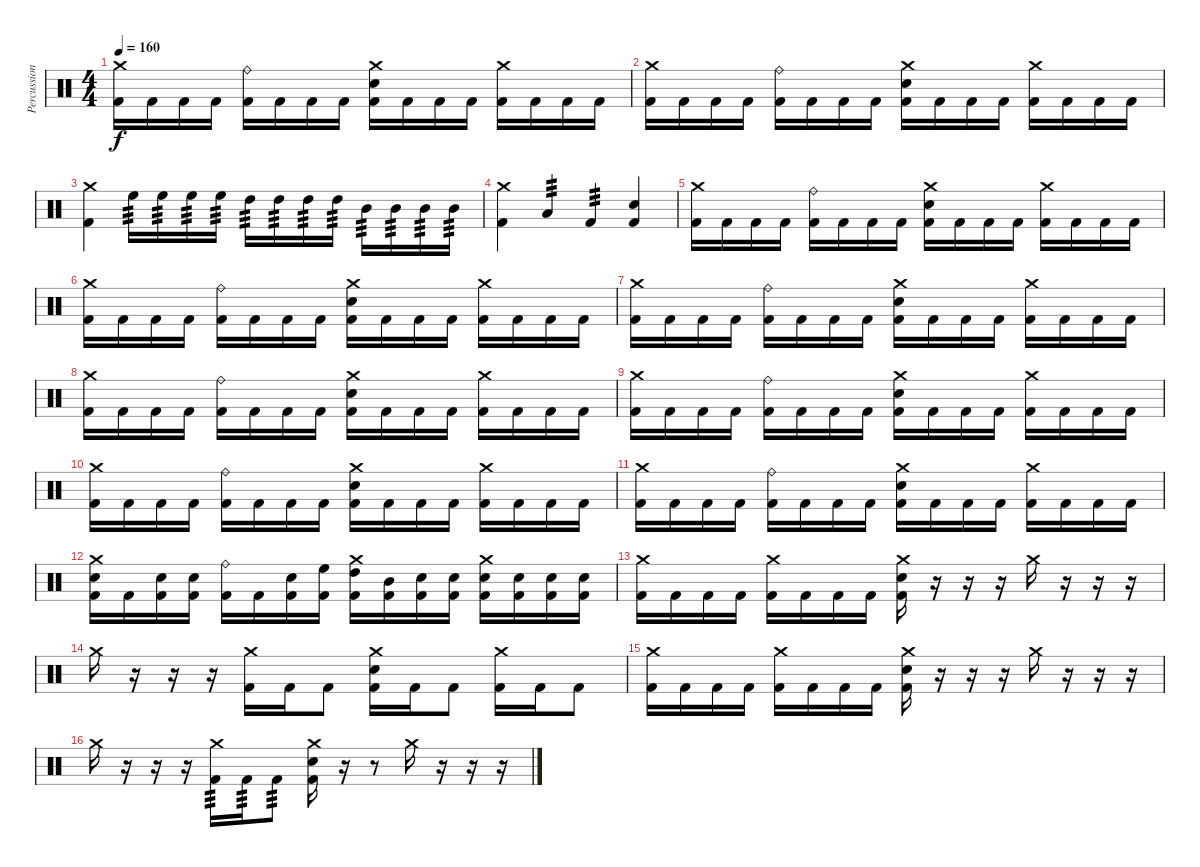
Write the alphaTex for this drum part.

\track ("Percussion" "Percussion") {instrument percussion}
\staff {score}
\articulation defaults
\ts (4 4)
\tempo 160
\clef neutral
\ks c
("Crash medium (hit)" "Kick (hit) 2").16{dy f} "Kick (hit) 2".16 "Kick (hit) 2".16 "Kick (hit) 2".16 ("Ride (bell)" "Kick (hit) 2").16 "Kick (hit) 2".16 "Kick (hit) 2".16 "Kick (hit) 2".16 ("Crash medium (hit)" "Snare (hit) 2" "Kick (hit) 2").16 "Kick (hit) 2".16 "Kick (hit) 2".16 "Kick (hit) 2".16 ("Crash medium (hit)" "Kick (hit) 2").16 "Kick (hit) 2".16 "Kick (hit) 2".16 "Kick (hit) 2".16 |
("Crash medium (hit)" "Kick (hit) 2").16 "Kick (hit) 2".16 "Kick (hit) 2".16 "Kick (hit) 2".16 ("Ride (bell)" "Kick (hit) 2").16 "Kick (hit) 2".16 "Kick (hit) 2".16 "Kick (hit) 2".16 ("Crash medium (hit)" "Snare (hit) 2" "Kick (hit) 2").16 "Kick (hit) 2".16 "Kick (hit) 2".16 "Kick (hit) 2".16 ("Crash medium (hit)" "Kick (hit) 2").16 "Kick (hit) 2".16 "Kick (hit) 2".16 "Kick (hit) 2".16 |
("Crash medium (hit)" "Kick (hit) 2").4 "High Floor Tom (hit)".16{tp 3} "High Floor Tom (hit)".16{tp 3} "High Floor Tom (hit)".16{tp 3} "High Floor Tom (hit)".16{tp 3} "High Tom (hit)".16{tp 3} "High Tom (hit)".16{tp 3} "High Tom (hit)".16{tp 3} "High Tom (hit)".16{tp 3} "Mid Tom (hit)".16{tp 3} "Mid Tom (hit)".16{tp 3} "Mid Tom (hit)".16{tp 3} "Mid Tom (hit)".16{tp 3} |
("Crash medium (hit)" "Kick (hit) 2").4 "Low Tom (hit)".4{tp 3} "Kick (hit) 2".4{tp 3} ("Snare (hit) 2" "Kick (hit) 2").4 |
("Crash medium (hit)" "Kick (hit) 2").16 "Kick (hit) 2".16 "Kick (hit) 2".16 "Kick (hit) 2".16 ("Ride (bell)" "Kick (hit) 2").16 "Kick (hit) 2".16 "Kick (hit) 2".16 "Kick (hit) 2".16 ("Crash medium (hit)" "Snare (hit) 2" "Kick (hit) 2").16 "Kick (hit) 2".16 "Kick (hit) 2".16 "Kick (hit) 2".16 ("Crash medium (hit)" "Kick (hit) 2").16 "Kick (hit) 2".16 "Kick (hit) 2".16 "Kick (hit) 2".16 |
("Crash medium (hit)" "Kick (hit) 2").16 "Kick (hit) 2".16 "Kick (hit) 2".16 "Kick (hit) 2".16 ("Ride (bell)" "Kick (hit) 2").16 "Kick (hit) 2".16 "Kick (hit) 2".16 "Kick (hit) 2".16 ("Crash medium (hit)" "Snare (hit) 2" "Kick (hit) 2").16 "Kick (hit) 2".16 "Kick (hit) 2".16 "Kick (hit) 2".16 ("Crash medium (hit)" "Kick (hit) 2").16 "Kick (hit) 2".16 "Kick (hit) 2".16 "Kick (hit) 2".16 |
("Crash medium (hit)" "Kick (hit) 2").16 "Kick (hit) 2".16 "Kick (hit) 2".16 "Kick (hit) 2".16 ("Ride (bell)" "Kick (hit) 2").16 "Kick (hit) 2".16 "Kick (hit) 2".16 "Kick (hit) 2".16 ("Crash medium (hit)" "Snare (hit) 2" "Kick (hit) 2").16 "Kick (hit) 2".16 "Kick (hit) 2".16 "Kick (hit) 2".16 ("Crash medium (hit)" "Kick (hit) 2").16 "Kick (hit) 2".16 "Kick (hit) 2".16 "Kick (hit) 2".16 |
("Crash medium (hit)" "Kick (hit) 2").16 "Kick (hit) 2".16 "Kick (hit) 2".16 "Kick (hit) 2".16 ("Ride (bell)" "Kick (hit) 2").16 "Kick (hit) 2".16 "Kick (hit) 2".16 "Kick (hit) 2".16 ("Crash medium (hit)" "Snare (hit) 2" "Kick (hit) 2").16 "Kick (hit) 2".16 "Kick (hit) 2".16 "Kick (hit) 2".16 ("Crash medium (hit)" "Kick (hit) 2").16 "Kick (hit) 2".16 "Kick (hit) 2".16 "Kick (hit) 2".16 |
("Crash medium (hit)" "Kick (hit) 2").16 "Kick (hit) 2".16 "Kick (hit) 2".16 "Kick (hit) 2".16 ("Ride (bell)" "Kick (hit) 2").16 "Kick (hit) 2".16 "Kick (hit) 2".16 "Kick (hit) 2".16 ("Crash medium (hit)" "Snare (hit) 2" "Kick (hit) 2").16 "Kick (hit) 2".16 "Kick (hit) 2".16 "Kick (hit) 2".16 ("Crash medium (hit)" "Kick (hit) 2").16 "Kick (hit) 2".16 "Kick (hit) 2".16 "Kick (hit) 2".16 |
("Crash medium (hit)" "Kick (hit) 2").16 "Kick (hit) 2".16 "Kick (hit) 2".16 "Kick (hit) 2".16 ("Ride (bell)" "Kick (hit) 2").16 "Kick (hit) 2".16 "Kick (hit) 2".16 "Kick (hit) 2".16 ("Crash medium (hit)" "Snare (hit) 2" "Kick (hit) 2").16 "Kick (hit) 2".16 "Kick (hit) 2".16 "Kick (hit) 2".16 ("Crash medium (hit)" "Kick (hit) 2").16 "Kick (hit) 2".16 "Kick (hit) 2".16 "Kick (hit) 2".16 |
("Crash medium (hit)" "Kick (hit) 2").16 "Kick (hit) 2".16 "Kick (hit) 2".16 "Kick (hit) 2".16 ("Ride (bell)" "Kick (hit) 2").16 "Kick (hit) 2".16 "Kick (hit) 2".16 "Kick (hit) 2".16 ("Crash medium (hit)" "Snare (hit) 2" "Kick (hit) 2").16 "Kick (hit) 2".16 "Kick (hit) 2".16 "Kick (hit) 2".16 ("Crash medium (hit)" "Kick (hit) 2").16 "Kick (hit) 2".16 "Kick (hit) 2".16 "Kick (hit) 2".16 |
("Crash medium (hit)" "Snare (hit) 2" "Kick (hit) 2").16 "Kick (hit) 2".16 ("Snare (hit) 2" "Kick (hit) 2").16 ("Snare (hit) 2" "Kick (hit) 2").16 ("Ride (bell)" "Kick (hit) 2").16 "Kick (hit) 2".16 ("Snare (hit) 2" "Kick (hit) 2").16 ("High Floor Tom (hit)" "Kick (hit) 2").16 ("Crash medium (hit)" "High Tom (hit)" "Kick (hit) 2").16 ("Mid Tom (hit)" "Kick (hit) 2").16 ("Snare (hit) 2" "Kick (hit) 2").16 ("Snare (hit) 2" "Kick (hit) 2").16 ("Crash medium (hit)" "Snare (hit) 2" "Kick (hit) 2").16 ("Snare (hit) 2" "Kick (hit) 2").16 ("Snare (hit) 2" "Kick (hit) 2").16 ("Snare (hit) 2" "Kick (hit) 2").16 |
("Crash medium (hit)" "Kick (hit) 2").16 "Kick (hit) 2".16 "Kick (hit) 2".16 "Kick (hit) 2".16 ("Crash medium (hit)" "Kick (hit) 2").16 "Kick (hit) 2".16 "Kick (hit) 2".16 "Kick (hit) 2".16 ("Crash medium (hit)" "Snare (hit) 2" "Kick (hit) 2").16 r.16 r.16 r.16 "Crash medium (hit)".16 r.16 r.16 r.16 |
"Crash medium (hit)".16 r.16 r.16 r.16 ("Crash medium (hit)" "Kick (hit) 2").16 "Kick (hit) 2".16 "Kick (hit) 2".8 ("Crash medium (hit)" "Snare (hit) 2" "Kick (hit) 2").16 "Kick (hit) 2".16 "Kick (hit) 2".8 ("Crash medium (hit)" "Kick (hit) 2").16 "Kick (hit) 2".16 "Kick (hit) 2".8 |
("Crash medium (hit)" "Kick (hit) 2").16 "Kick (hit) 2".16 "Kick (hit) 2".16 "Kick (hit) 2".16 ("Crash medium (hit)" "Kick (hit) 2").16 "Kick (hit) 2".16 "Kick (hit) 2".16 "Kick (hit) 2".16 ("Crash medium (hit)" "Snare (hit) 2" "Kick (hit) 2").16 r.16 r.16 r.16 "Crash medium (hit)".16 r.16 r.16 r.16 |
"Crash medium (hit)".16 r.16 r.16 r.16 ("Crash medium (hit)" "Kick (hit) 2").16{tp 3} "Kick (hit) 2".16{tp 3} "Kick (hit) 2".8{tp 3} ("Crash medium (hit)" "Snare (hit) 2" "Kick (hit) 2").16 r.16 r.8 "Crash medium (hit)".16 r.16 r.16 r.16
